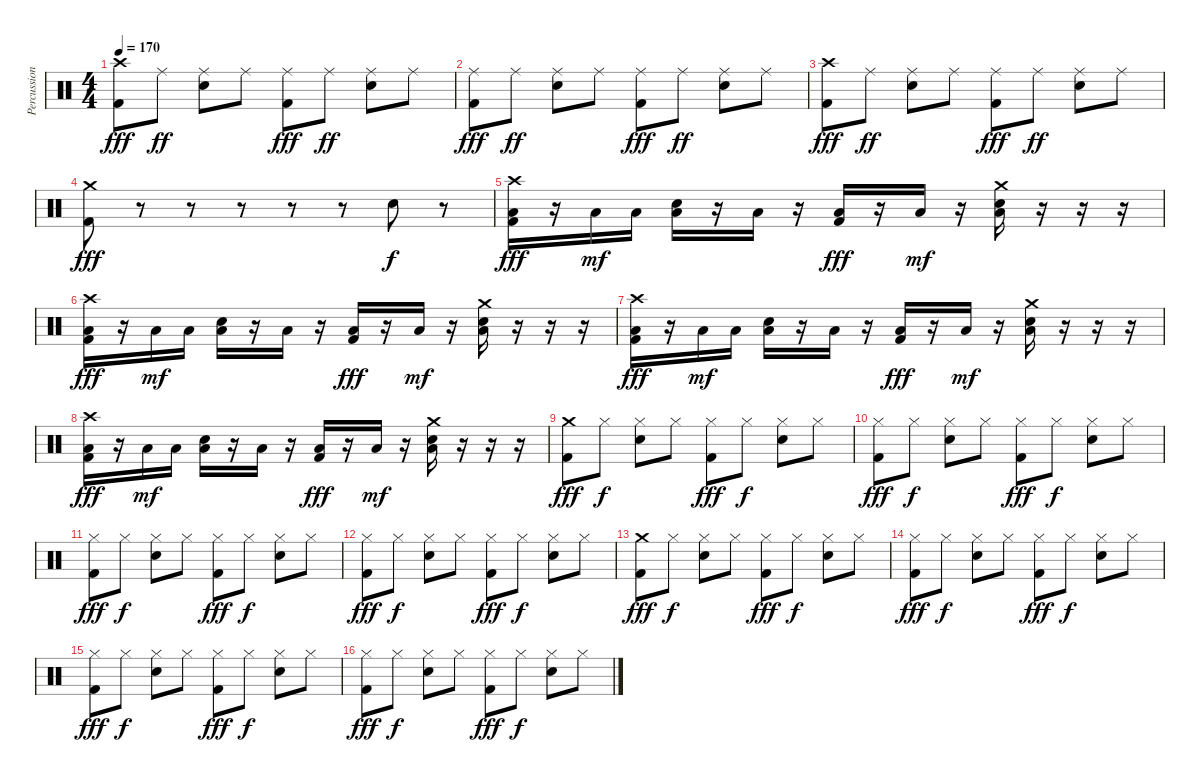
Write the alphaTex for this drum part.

\track ("Percussion" "Percussion") {instrument percussion}
\staff {score}
\articulation defaults
\ts (4 4)
\tempo 170
\clef neutral
\ks c
("Crash high (hit)" "Kick (hit) 2").8{dy fff} "Ride (middle)".8{dy ff} ("Ride (middle)" "Electric Snare (hit)").8 "Ride (middle)".8 ("Ride (middle)" "Kick (hit) 2").8{dy fff} "Ride (middle)".8{dy ff} ("Ride (middle)" "Electric Snare (hit)").8 "Ride (middle)".8 |
("Ride (middle)" "Kick (hit) 2").8{dy fff} "Ride (middle)".8{dy ff} ("Ride (middle)" "Electric Snare (hit)").8 "Ride (middle)".8 ("Ride (middle)" "Kick (hit) 2").8{dy fff} "Ride (middle)".8{dy ff} ("Ride (middle)" "Electric Snare (hit)").8 "Ride (middle)".8 |
("Crash high (hit)" "Kick (hit) 2").8{dy fff} "Ride (middle)".8{dy ff} ("Ride (middle)" "Electric Snare (hit)").8 "Ride (middle)".8 ("Ride (middle)" "Kick (hit) 2").8{dy fff} "Ride (middle)".8{dy ff} ("Ride (middle)" "Electric Snare (hit)").8 "Ride (middle)".8 |
("Crash medium (hit)" "Kick (hit) 2").8{dy fff} r.8 r.8 r.8 r.8 r.8 "Electric Snare (hit)".8{dy f} r.8 |
("Crash high (hit)" "Low Floor Tom (hit)" "Kick (hit) 2").16{dy fff} r.16 "Low Floor Tom (hit)".16{dy mf} "Low Floor Tom (hit)".16 ("Low Floor Tom (hit)" "Electric Snare (hit)").16 r.16 "Low Floor Tom (hit)".16 r.16 ("Low Floor Tom (hit)" "Kick (hit) 2").16{dy fff} r.16 "Low Floor Tom (hit)".16{dy mf} r.16 ("Crash medium (hit)" "Low Floor Tom (hit)" "Electric Snare (hit)").16 r.16 r.16 r.16 |
("Crash high (hit)" "Low Floor Tom (hit)" "Kick (hit) 2").16{dy fff} r.16 "Low Floor Tom (hit)".16{dy mf} "Low Floor Tom (hit)".16 ("Low Floor Tom (hit)" "Electric Snare (hit)").16 r.16 "Low Floor Tom (hit)".16 r.16 ("Low Floor Tom (hit)" "Kick (hit) 2").16{dy fff} r.16 "Low Floor Tom (hit)".16{dy mf} r.16 ("Crash medium (hit)" "Low Floor Tom (hit)" "Electric Snare (hit)").16 r.16 r.16 r.16 |
("Crash high (hit)" "Low Floor Tom (hit)" "Kick (hit) 2").16{dy fff} r.16 "Low Floor Tom (hit)".16{dy mf} "Low Floor Tom (hit)".16 ("Low Floor Tom (hit)" "Electric Snare (hit)").16 r.16 "Low Floor Tom (hit)".16 r.16 ("Low Floor Tom (hit)" "Kick (hit) 2").16{dy fff} r.16 "Low Floor Tom (hit)".16{dy mf} r.16 ("Crash medium (hit)" "Low Floor Tom (hit)" "Electric Snare (hit)").16 r.16 r.16 r.16 |
("Crash high (hit)" "Low Floor Tom (hit)" "Kick (hit) 2").16{dy fff} r.16 "Low Floor Tom (hit)".16{dy mf} "Low Floor Tom (hit)".16 ("Low Floor Tom (hit)" "Electric Snare (hit)").16 r.16 "Low Floor Tom (hit)".16 r.16 ("Low Floor Tom (hit)" "Kick (hit) 2").16{dy fff} r.16 "Low Floor Tom (hit)".16{dy mf} r.16 ("Crash medium (hit)" "Low Floor Tom (hit)" "Electric Snare (hit)").16 r.16 r.16 r.16 |
("Crash medium (hit)" "Kick (hit) 2").8{dy fff} "Hi-Hat (closed)".8{dy f} ("Hi-Hat (closed)" "Electric Snare (hit)").8 "Hi-Hat (closed)".8 ("Hi-Hat (closed)" "Kick (hit) 2").8{dy fff} "Hi-Hat (closed)".8{dy f} ("Hi-Hat (closed)" "Electric Snare (hit)").8 "Hi-Hat (closed)".8 |
("Hi-Hat (closed)" "Kick (hit) 2").8{dy fff} "Hi-Hat (closed)".8{dy f} ("Hi-Hat (closed)" "Electric Snare (hit)").8 "Hi-Hat (closed)".8 ("Hi-Hat (closed)" "Kick (hit) 2").8{dy fff} "Hi-Hat (closed)".8{dy f} ("Hi-Hat (closed)" "Electric Snare (hit)").8 "Hi-Hat (closed)".8 |
("Hi-Hat (closed)" "Kick (hit) 2").8{dy fff} "Hi-Hat (closed)".8{dy f} ("Hi-Hat (closed)" "Electric Snare (hit)").8 "Hi-Hat (closed)".8 ("Hi-Hat (closed)" "Kick (hit) 2").8{dy fff} "Hi-Hat (closed)".8{dy f} ("Hi-Hat (closed)" "Electric Snare (hit)").8 "Hi-Hat (closed)".8 |
("Hi-Hat (closed)" "Kick (hit) 2").8{dy fff} "Hi-Hat (closed)".8{dy f} ("Hi-Hat (closed)" "Electric Snare (hit)").8 "Hi-Hat (closed)".8 ("Hi-Hat (closed)" "Kick (hit) 2").8{dy fff} "Hi-Hat (closed)".8{dy f} ("Hi-Hat (closed)" "Electric Snare (hit)").8 "Hi-Hat (closed)".8 |
("Crash medium (hit)" "Kick (hit) 2").8{dy fff} "Hi-Hat (closed)".8{dy f} ("Hi-Hat (closed)" "Electric Snare (hit)").8 "Hi-Hat (closed)".8 ("Hi-Hat (closed)" "Kick (hit) 2").8{dy fff} "Hi-Hat (closed)".8{dy f} ("Hi-Hat (closed)" "Electric Snare (hit)").8 "Hi-Hat (closed)".8 |
("Hi-Hat (closed)" "Kick (hit) 2").8{dy fff} "Hi-Hat (closed)".8{dy f} ("Hi-Hat (closed)" "Electric Snare (hit)").8 "Hi-Hat (closed)".8 ("Hi-Hat (closed)" "Kick (hit) 2").8{dy fff} "Hi-Hat (closed)".8{dy f} ("Hi-Hat (closed)" "Electric Snare (hit)").8 "Hi-Hat (closed)".8 |
("Hi-Hat (closed)" "Kick (hit) 2").8{dy fff} "Hi-Hat (closed)".8{dy f} ("Hi-Hat (closed)" "Electric Snare (hit)").8 "Hi-Hat (closed)".8 ("Hi-Hat (closed)" "Kick (hit) 2").8{dy fff} "Hi-Hat (closed)".8{dy f} ("Hi-Hat (closed)" "Electric Snare (hit)").8 "Hi-Hat (closed)".8 |
("Hi-Hat (closed)" "Kick (hit) 2").8{dy fff} "Hi-Hat (closed)".8{dy f} ("Hi-Hat (closed)" "Electric Snare (hit)").8 "Hi-Hat (closed)".8 ("Hi-Hat (closed)" "Kick (hit) 2").8{dy fff} "Hi-Hat (closed)".8{dy f} ("Hi-Hat (closed)" "Electric Snare (hit)").8 "Hi-Hat (closed)".8
